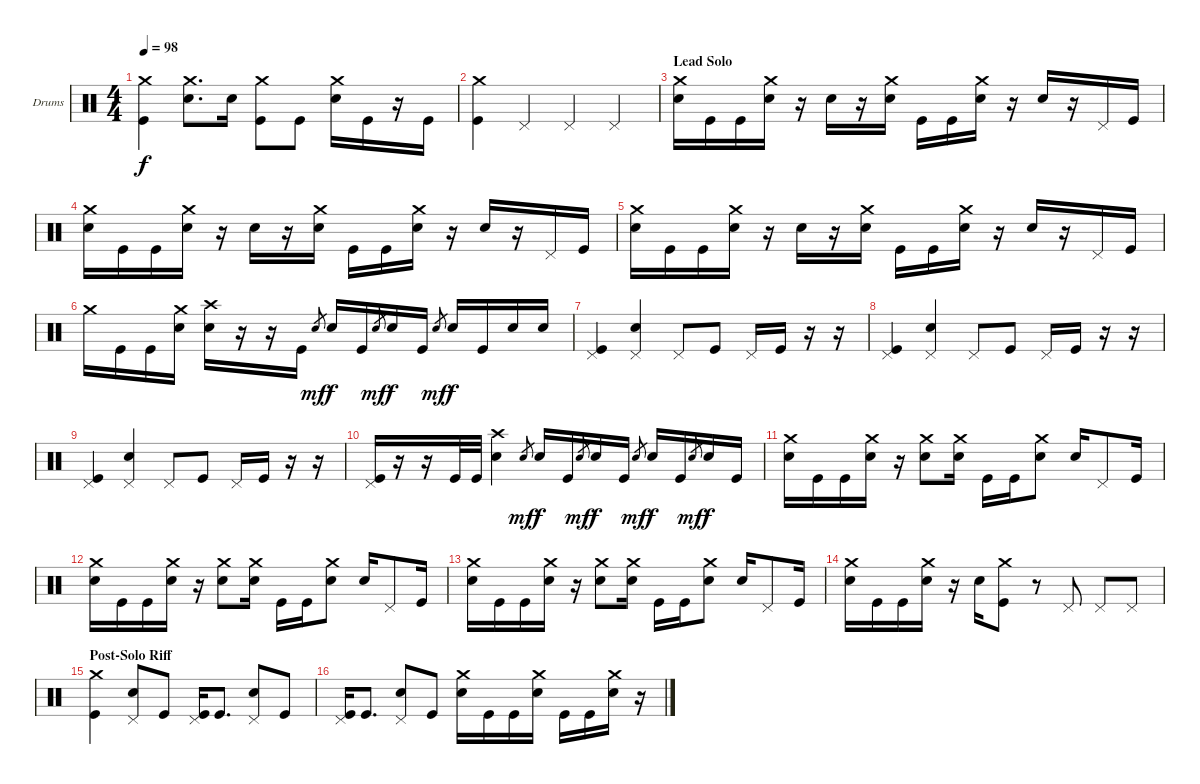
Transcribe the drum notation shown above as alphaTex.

\bracketExtendMode groupsimilarinstruments
\firstSystemTrackNameOrientation horizontal
\otherSystemsTrackNameOrientation horizontal
\track ("Drumkit" "Drums") {instrument percussion}
\staff {score}
\articulation defaults
\ts (4 4)
\tempo 98
\clef neutral
\ks c
("Crash medium (hit)" "Kick (hit)").4{dy f} ("Crash medium (hit)" "Snare (hit) 2").8{d} "Snare (hit) 2".16 ("Crash medium (hit)" "Kick (hit)").8 "Kick (hit)".8 ("Crash medium (hit)" "Snare (hit) 2").16 "Kick (hit)".16 r.16 "Kick (hit)".16 |
("Crash medium (hit)" "Kick (hit)").4 "Pedal Hi-Hat (hit)".4 "Pedal Hi-Hat (hit)".4 "Pedal Hi-Hat (hit)".4 |
\section ("" "Lead Solo")
("Crash medium (hit)" "Snare (hit) 2").16 "Kick (hit)".16 "Kick (hit)".16 ("Crash medium (hit)" "Snare (hit) 2").16 r.16 "Snare (hit) 2".16 r.16 ("Crash medium (hit)" "Snare (hit) 2").16 "Kick (hit)".16 "Kick (hit)".16 ("Crash medium (hit)" "Snare (hit) 2").16 r.16 "Snare (hit) 2".16 r.16 "Pedal Hi-Hat (hit)".16 "Kick (hit)".16 |
("Crash medium (hit)" "Snare (hit) 2").16 "Kick (hit)".16 "Kick (hit)".16 ("Crash medium (hit)" "Snare (hit) 2").16 r.16 "Snare (hit) 2".16 r.16 ("Crash medium (hit)" "Snare (hit) 2").16 "Kick (hit)".16 "Kick (hit)".16 ("Crash medium (hit)" "Snare (hit) 2").16 r.16 "Snare (hit) 2".16 r.16 "Pedal Hi-Hat (hit)".16 "Kick (hit)".16 |
("Crash medium (hit)" "Snare (hit) 2").16 "Kick (hit)".16 "Kick (hit)".16 ("Crash medium (hit)" "Snare (hit) 2").16 r.16 "Snare (hit) 2".16 r.16 ("Crash medium (hit)" "Snare (hit) 2").16 "Kick (hit)".16 "Kick (hit)".16 ("Crash medium (hit)" "Snare (hit) 2").16 r.16 "Snare (hit) 2".16 r.16 "Pedal Hi-Hat (hit)".16 "Kick (hit)".16 |
"Crash medium (hit)".16 "Kick (hit)".16 "Kick (hit)".16 ("Crash medium (hit)" "Snare (hit) 2").16 ("Crash high (hit)" "Snare (hit) 2").16 r.16 r.16 "Kick (hit)".16 "Snare (hit) 2".8{gr dy mf} "Snare (hit) 2".16{dy f} "Kick (hit)".16 "Snare (hit) 2".8{gr dy mf} "Snare (hit) 2".16{dy f} "Kick (hit)".16 "Snare (hit) 2".8{gr dy mf} "Snare (hit) 2".16{dy f} "Kick (hit)".16 "Snare (hit) 2".16 "Snare (hit) 2".16 |
("Pedal Hi-Hat (hit)" "Kick (hit)").4 ("Pedal Hi-Hat (hit)" "Snare (hit) 2").4 "Pedal Hi-Hat (hit)".8 "Kick (hit)".8 "Pedal Hi-Hat (hit)".16 "Kick (hit)".16 r.16 r.16 |
("Pedal Hi-Hat (hit)" "Kick (hit)").4 ("Pedal Hi-Hat (hit)" "Snare (hit) 2").4 "Pedal Hi-Hat (hit)".8 "Kick (hit)".8 "Pedal Hi-Hat (hit)".16 "Kick (hit)".16 r.16 r.16 |
("Pedal Hi-Hat (hit)" "Kick (hit)").4 ("Pedal Hi-Hat (hit)" "Snare (hit) 2").4 "Pedal Hi-Hat (hit)".8 "Kick (hit)".8 "Pedal Hi-Hat (hit)".16 "Kick (hit)".16 r.16 r.16 |
("Pedal Hi-Hat (hit)" "Kick (hit)").16 r.16 r.16 "Kick (hit)".32 "Kick (hit)".32 ("Crash high (hit)" "Snare (hit) 2").4 "Snare (hit) 2".8{gr dy mf} "Snare (hit) 2".16{dy f} "Kick (hit)".16 "Snare (hit) 2".8{gr dy mf} "Snare (hit) 2".16{dy f} "Kick (hit)".16 "Snare (hit) 2".8{gr dy mf} "Snare (hit) 2".16{dy f} "Kick (hit)".16 "Snare (hit) 2".8{gr dy mf} "Snare (hit) 2".16{dy f} "Kick (hit)".16 |
("Crash medium (hit)" "Snare (hit) 2").16 "Kick (hit)".16 "Kick (hit)".16 ("Crash medium (hit)" "Snare (hit) 2").16 r.16 ("Crash medium (hit)" "Snare (hit) 2").8 ("Crash medium (hit)" "Snare (hit) 2").16 "Kick (hit)".16 "Kick (hit)".16 ("Crash medium (hit)" "Snare (hit) 2").8 "Snare (hit) 2".16 "Pedal Hi-Hat (hit)".8 "Kick (hit)".16 |
("Crash medium (hit)" "Snare (hit) 2").16 "Kick (hit)".16 "Kick (hit)".16 ("Crash medium (hit)" "Snare (hit) 2").16 r.16 ("Crash medium (hit)" "Snare (hit) 2").8 ("Crash medium (hit)" "Snare (hit) 2").16 "Kick (hit)".16 "Kick (hit)".16 ("Crash medium (hit)" "Snare (hit) 2").8 "Snare (hit) 2".16 "Pedal Hi-Hat (hit)".8 "Kick (hit)".16 |
("Crash medium (hit)" "Snare (hit) 2").16 "Kick (hit)".16 "Kick (hit)".16 ("Crash medium (hit)" "Snare (hit) 2").16 r.16 ("Crash medium (hit)" "Snare (hit) 2").8 ("Crash medium (hit)" "Snare (hit) 2").16 "Kick (hit)".16 "Kick (hit)".16 ("Crash medium (hit)" "Snare (hit) 2").8 "Snare (hit) 2".16 "Pedal Hi-Hat (hit)".8 "Kick (hit)".16 |
("Crash medium (hit)" "Snare (hit) 2").16 "Kick (hit)".16 "Kick (hit)".16 ("Crash medium (hit)" "Snare (hit) 2").16 r.16 "Snare (hit) 2".16 ("Crash medium (hit)" "Kick (hit)").8 r.8 "Pedal Hi-Hat (hit)".8 "Pedal Hi-Hat (hit)".8 "Pedal Hi-Hat (hit)".8 |
\section ("" "Post-Solo Riff")
("Crash medium (hit)" "Kick (hit)").4 ("Pedal Hi-Hat (hit)" "Snare (hit) 2").8 "Kick (hit)".8 ("Pedal Hi-Hat (hit)" "Kick (hit)").16 "Kick (hit)".8{d} ("Pedal Hi-Hat (hit)" "Snare (hit) 2").8 "Kick (hit)".8 |
("Pedal Hi-Hat (hit)" "Kick (hit)").16 "Kick (hit)".8{d} ("Pedal Hi-Hat (hit)" "Snare (hit) 2").8 "Kick (hit)".8 ("Crash medium (hit)" "Snare (hit) 2").16 "Kick (hit)".16 "Kick (hit)".16 ("Crash medium (hit)" "Snare (hit) 2").16 "Kick (hit)".16 "Kick (hit)".16 ("Crash medium (hit)" "Snare (hit) 2").16 r.16
